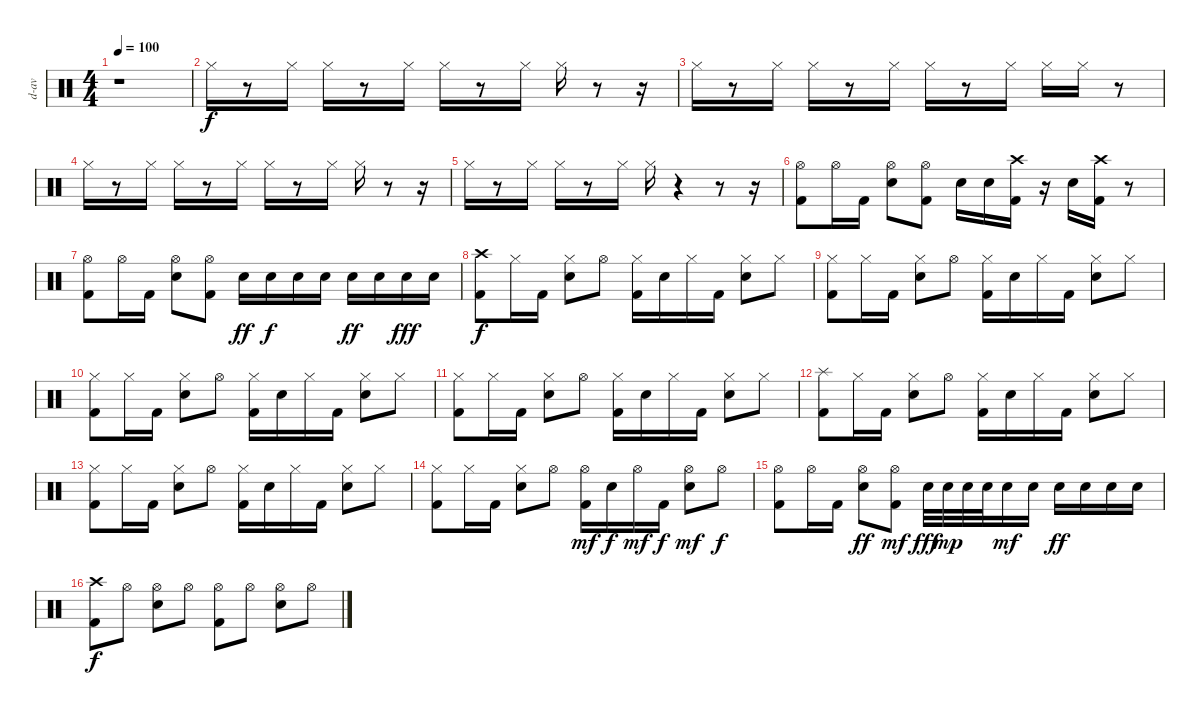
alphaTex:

\track ("d-av" "d-av") {instrument percussion}
\staff {score}
\articulation defaults
\ts (4 4)
\tempo 100
\clef neutral
\ks c
r.1{dy f} |
"Hi-Hat (closed)".16 r.8 "Hi-Hat (closed)".16 "Hi-Hat (closed)".16 r.8 "Hi-Hat (closed)".16 "Hi-Hat (closed)".16 r.8 "Hi-Hat (closed)".16 "Hi-Hat (closed)".16 r.8 r.16 |
"Hi-Hat (closed)".16 r.8 "Hi-Hat (closed)".16 "Hi-Hat (closed)".16 r.8 "Hi-Hat (closed)".16 "Hi-Hat (closed)".16 r.8 "Hi-Hat (closed)".16 "Hi-Hat (closed)".16 "Hi-Hat (closed)".16 r.8 |
"Hi-Hat (closed)".16 r.8 "Hi-Hat (closed)".16 "Hi-Hat (closed)".16 r.8 "Hi-Hat (closed)".16 "Hi-Hat (closed)".16 r.8 "Hi-Hat (closed)".16 "Hi-Hat (closed)".16 r.8 r.16 |
"Hi-Hat (closed)".16 r.8 "Hi-Hat (closed)".16 "Hi-Hat (closed)".16 r.8 "Hi-Hat (closed)".16 "Hi-Hat (closed)".16 r.4 r.8 r.16 |
("Hi-Hat (open)" "Kick (hit) 2").8 "Hi-Hat (open)".16 "Kick (hit) 2".16 ("Hi-Hat (open)" "Electric Snare (hit)").8 ("Hi-Hat (open)" "Kick (hit) 2").8 "Electric Snare (hit)".16 "Electric Snare (hit)".16 ("Crash high (hit)" "Kick (hit) 2").16 r.16 "Electric Snare (hit)".16 ("Crash high (hit)" "Kick (hit) 2").16 r.8 |
("Hi-Hat (open)" "Kick (hit) 2").8 "Hi-Hat (open)".16 "Kick (hit) 2".16 ("Hi-Hat (open)" "Electric Snare (hit)").8 ("Hi-Hat (open)" "Kick (hit) 2").8 "Electric Snare (hit)".16{dy ff} "Electric Snare (hit)".16{dy f} "Electric Snare (hit)".16 "Electric Snare (hit)".16 "Electric Snare (hit)".16{dy ff} "Electric Snare (hit)".16 "Electric Snare (hit)".16{dy fff} "Electric Snare (hit)".16 |
("Crash high (hit)" "Kick (hit) 2").8{dy f} "Hi-Hat (closed)".16 "Kick (hit) 2".16 ("Hi-Hat (closed)" "Electric Snare (hit)").8 "Hi-Hat (open)".8 ("Hi-Hat (closed)" "Kick (hit) 2").16 "Electric Snare (hit)".16 "Hi-Hat (closed)".16 "Kick (hit) 2".16 ("Hi-Hat (closed)" "Electric Snare (hit)").8 "Hi-Hat (closed)".8 |
("Hi-Hat (closed)" "Kick (hit) 2").8 "Hi-Hat (closed)".16 "Kick (hit) 2".16 ("Hi-Hat (closed)" "Electric Snare (hit)").8 "Hi-Hat (open)".8 ("Hi-Hat (closed)" "Kick (hit) 2").16 "Electric Snare (hit)".16 "Hi-Hat (closed)".16 "Kick (hit) 2".16 ("Hi-Hat (closed)" "Electric Snare (hit)").8 "Hi-Hat (closed)".8 |
("Hi-Hat (closed)" "Kick (hit) 2").8 "Hi-Hat (closed)".16 "Kick (hit) 2".16 ("Hi-Hat (closed)" "Electric Snare (hit)").8 "Hi-Hat (open)".8 ("Hi-Hat (closed)" "Kick (hit) 2").16 "Electric Snare (hit)".16 "Hi-Hat (closed)".16 "Kick (hit) 2".16 ("Hi-Hat (closed)" "Electric Snare (hit)").8 "Hi-Hat (closed)".8 |
("Hi-Hat (closed)" "Kick (hit) 2").8 "Hi-Hat (closed)".16 "Kick (hit) 2".16 ("Hi-Hat (closed)" "Electric Snare (hit)").8 "Hi-Hat (open)".8 ("Hi-Hat (closed)" "Kick (hit) 2").16 "Electric Snare (hit)".16 "Hi-Hat (closed)".16 "Kick (hit) 2".16 ("Hi-Hat (closed)" "Electric Snare (hit)").8 "Hi-Hat (closed)".8 |
("Splash (hit)" "Kick (hit) 2").8 "Hi-Hat (closed)".16 "Kick (hit) 2".16 ("Hi-Hat (closed)" "Electric Snare (hit)").8 "Hi-Hat (open)".8 ("Hi-Hat (closed)" "Kick (hit) 2").16 "Electric Snare (hit)".16 "Hi-Hat (closed)".16 "Kick (hit) 2".16 ("Hi-Hat (closed)" "Electric Snare (hit)").8 "Hi-Hat (closed)".8 |
("Hi-Hat (closed)" "Kick (hit) 2").8 "Hi-Hat (closed)".16 "Kick (hit) 2".16 ("Hi-Hat (closed)" "Electric Snare (hit)").8 "Hi-Hat (open)".8 ("Hi-Hat (closed)" "Kick (hit) 2").16 "Electric Snare (hit)".16 "Hi-Hat (closed)".16 "Kick (hit) 2".16 ("Hi-Hat (closed)" "Electric Snare (hit)").8 "Hi-Hat (closed)".8 |
("Hi-Hat (closed)" "Kick (hit) 2").8 "Hi-Hat (closed)".16 "Kick (hit) 2".16 ("Hi-Hat (closed)" "Electric Snare (hit)").8 "Hi-Hat (open)".8 ("Hi-Hat (open)" "Kick (hit) 2").16{dy mf} "Electric Snare (hit)".16{dy f} "Hi-Hat (open)".16{dy mf} "Kick (hit) 2".16{dy f} ("Hi-Hat (open)" "Electric Snare (hit)").8{dy mf} "Hi-Hat (open)".8{dy f} |
("Hi-Hat (open)" "Kick (hit) 2").8 "Hi-Hat (open)".16 "Kick (hit) 2".16 ("Hi-Hat (open)" "Electric Snare (hit)").8{dy ff} ("Hi-Hat (open)" "Kick (hit) 2").8{dy mf} "Electric Snare (hit)".32{dy fff} "Electric Snare (hit)".32{dy mp} "Electric Snare (hit)".32 "Electric Snare (hit)".32 "Electric Snare (hit)".16{dy mf} "Electric Snare (hit)".16 "Electric Snare (hit)".16{dy ff} "Electric Snare (hit)".16 "Electric Snare (hit)".16 "Electric Snare (hit)".16 |
("Crash high (hit)" "Kick (hit) 2").8{dy f} "Hi-Hat (open)".8 ("Hi-Hat (open)" "Electric Snare (hit)").8 "Hi-Hat (open)".8 ("Hi-Hat (open)" "Kick (hit) 2").8 "Hi-Hat (open)".8 ("Hi-Hat (open)" "Electric Snare (hit)").8 "Hi-Hat (open)".8
